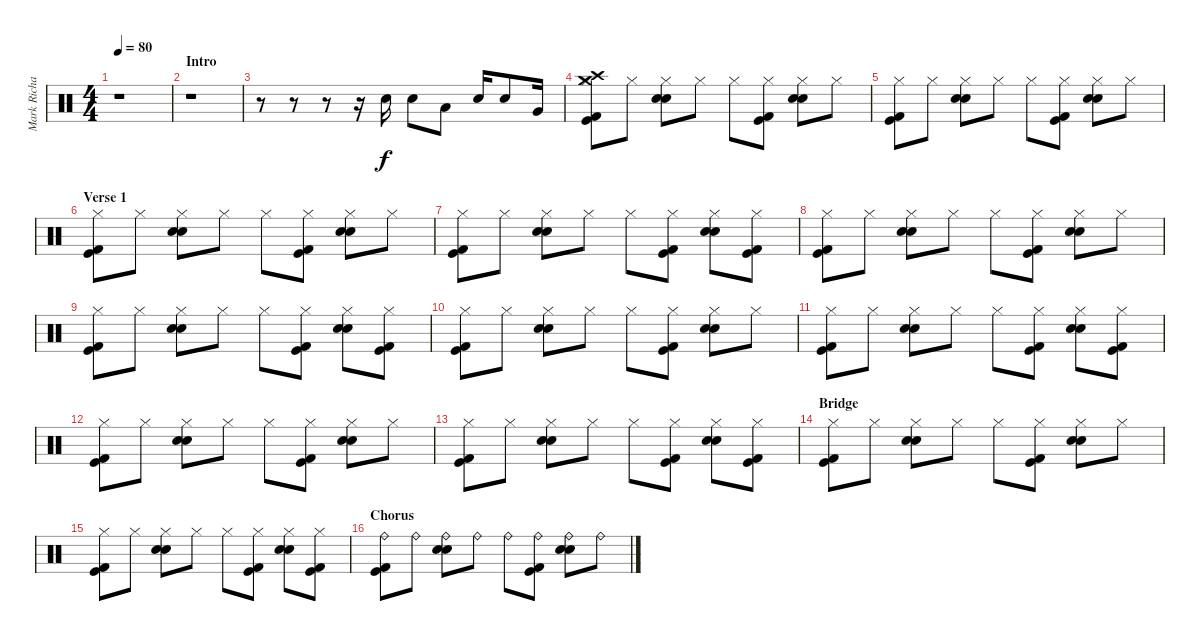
\track ("Mark Richardson (Drums)" "Mark Richa") {instrument percussion}
\staff {score}
\articulation defaults
\ts (4 4)
\tempo 80
\clef neutral
\ks c
r.1{dy f} |
\section ("" "Intro")
r.1 |
r.8 r.8 r.8 r.16 "Snare (hit) 2".16 "Snare (hit) 2".8 "Low Tom (hit)".8 "Snare (hit) 2".16 "Snare (hit) 2".8 "Very Low Tom (hit)".16 |
("Kick (hit) 2" "Kick (hit)" "Hi-Hat (closed)" "Crash high (hit)" "Crash medium (hit)").8 "Hi-Hat (closed)".8 ("Electric Snare (hit)" "Snare (hit) 2" "Hi-Hat (closed)").8 "Hi-Hat (closed)".8 "Hi-Hat (closed)".8 ("Kick (hit) 2" "Kick (hit)" "Hi-Hat (closed)").8 ("Electric Snare (hit)" "Snare (hit) 2" "Hi-Hat (closed)").8 "Hi-Hat (closed)".8 |
("Kick (hit) 2" "Kick (hit)" "Hi-Hat (closed)").8 "Hi-Hat (closed)".8 ("Electric Snare (hit)" "Snare (hit) 2" "Hi-Hat (closed)").8 "Hi-Hat (closed)".8 "Hi-Hat (closed)".8 ("Kick (hit) 2" "Kick (hit)" "Hi-Hat (closed)").8 ("Electric Snare (hit)" "Snare (hit) 2" "Hi-Hat (closed)").8 "Hi-Hat (closed)".8 |
\section ("" "Verse 1")
("Kick (hit) 2" "Kick (hit)" "Hi-Hat (closed)").8 "Hi-Hat (closed)".8 ("Electric Snare (hit)" "Snare (hit) 2" "Hi-Hat (closed)").8 "Hi-Hat (closed)".8 "Hi-Hat (closed)".8 ("Kick (hit) 2" "Kick (hit)" "Hi-Hat (closed)").8 ("Electric Snare (hit)" "Snare (hit) 2" "Hi-Hat (closed)").8 "Hi-Hat (closed)".8 |
("Kick (hit) 2" "Kick (hit)" "Hi-Hat (closed)").8 "Hi-Hat (closed)".8 ("Electric Snare (hit)" "Snare (hit) 2" "Hi-Hat (closed)").8 "Hi-Hat (closed)".8 "Hi-Hat (closed)".8 ("Kick (hit) 2" "Kick (hit)" "Hi-Hat (closed)").8 ("Electric Snare (hit)" "Snare (hit) 2" "Hi-Hat (closed)").8 ("Kick (hit) 2" "Kick (hit)" "Hi-Hat (closed)").8 |
("Kick (hit) 2" "Kick (hit)" "Hi-Hat (closed)").8 "Hi-Hat (closed)".8 ("Electric Snare (hit)" "Snare (hit) 2" "Hi-Hat (closed)").8 "Hi-Hat (closed)".8 "Hi-Hat (closed)".8 ("Kick (hit) 2" "Kick (hit)" "Hi-Hat (closed)").8 ("Electric Snare (hit)" "Snare (hit) 2" "Hi-Hat (closed)").8 "Hi-Hat (closed)".8 |
("Kick (hit) 2" "Kick (hit)" "Hi-Hat (closed)").8 "Hi-Hat (closed)".8 ("Electric Snare (hit)" "Snare (hit) 2" "Hi-Hat (closed)").8 "Hi-Hat (closed)".8 "Hi-Hat (closed)".8 ("Kick (hit) 2" "Kick (hit)" "Hi-Hat (closed)").8 ("Electric Snare (hit)" "Snare (hit) 2" "Hi-Hat (closed)").8 ("Kick (hit) 2" "Kick (hit)" "Hi-Hat (closed)").8 |
("Kick (hit) 2" "Kick (hit)" "Hi-Hat (closed)").8 "Hi-Hat (closed)".8 ("Electric Snare (hit)" "Snare (hit) 2" "Hi-Hat (closed)").8 "Hi-Hat (closed)".8 "Hi-Hat (closed)".8 ("Kick (hit) 2" "Kick (hit)" "Hi-Hat (closed)").8 ("Electric Snare (hit)" "Snare (hit) 2" "Hi-Hat (closed)").8 "Hi-Hat (closed)".8 |
("Kick (hit) 2" "Kick (hit)" "Hi-Hat (closed)").8 "Hi-Hat (closed)".8 ("Electric Snare (hit)" "Snare (hit) 2" "Hi-Hat (closed)").8 "Hi-Hat (closed)".8 "Hi-Hat (closed)".8 ("Kick (hit) 2" "Kick (hit)" "Hi-Hat (closed)").8 ("Electric Snare (hit)" "Snare (hit) 2" "Hi-Hat (closed)").8 ("Kick (hit) 2" "Kick (hit)" "Hi-Hat (closed)").8 |
("Kick (hit) 2" "Kick (hit)" "Hi-Hat (closed)").8 "Hi-Hat (closed)".8 ("Electric Snare (hit)" "Snare (hit) 2" "Hi-Hat (closed)").8 "Hi-Hat (closed)".8 "Hi-Hat (closed)".8 ("Kick (hit) 2" "Kick (hit)" "Hi-Hat (closed)").8 ("Electric Snare (hit)" "Snare (hit) 2" "Hi-Hat (closed)").8 "Hi-Hat (closed)".8 |
("Kick (hit) 2" "Kick (hit)" "Hi-Hat (closed)").8 "Hi-Hat (closed)".8 ("Electric Snare (hit)" "Snare (hit) 2" "Hi-Hat (closed)").8 "Hi-Hat (closed)".8 "Hi-Hat (closed)".8 ("Kick (hit) 2" "Kick (hit)" "Hi-Hat (closed)").8 ("Electric Snare (hit)" "Snare (hit) 2" "Hi-Hat (closed)").8 ("Kick (hit) 2" "Kick (hit)" "Hi-Hat (closed)").8 |
\section ("" "Bridge")
("Kick (hit) 2" "Kick (hit)" "Hi-Hat (closed)").8 "Hi-Hat (closed)".8 ("Electric Snare (hit)" "Snare (hit) 2" "Hi-Hat (closed)").8 "Hi-Hat (closed)".8 "Hi-Hat (closed)".8 ("Kick (hit) 2" "Kick (hit)" "Hi-Hat (closed)").8 ("Electric Snare (hit)" "Snare (hit) 2" "Hi-Hat (closed)").8 "Hi-Hat (closed)".8 |
("Kick (hit) 2" "Kick (hit)" "Hi-Hat (closed)").8 "Hi-Hat (closed)".8 ("Electric Snare (hit)" "Snare (hit) 2" "Hi-Hat (closed)").8 "Hi-Hat (closed)".8 "Hi-Hat (closed)".8 ("Kick (hit) 2" "Kick (hit)" "Hi-Hat (closed)").8 ("Electric Snare (hit)" "Snare (hit) 2" "Hi-Hat (closed)").8 ("Kick (hit) 2" "Kick (hit)" "Hi-Hat (closed)").8 |
\section ("" "Chorus")
("Kick (hit) 2" "Kick (hit)" "Ride (bell)").8 "Ride (bell)".8 ("Electric Snare (hit)" "Snare (hit) 2" "Ride (bell)").8 "Ride (bell)".8 "Ride (bell)".8 ("Kick (hit) 2" "Kick (hit)" "Ride (bell)").8 ("Electric Snare (hit)" "Snare (hit) 2" "Ride (bell)").8 "Ride (bell)".8
